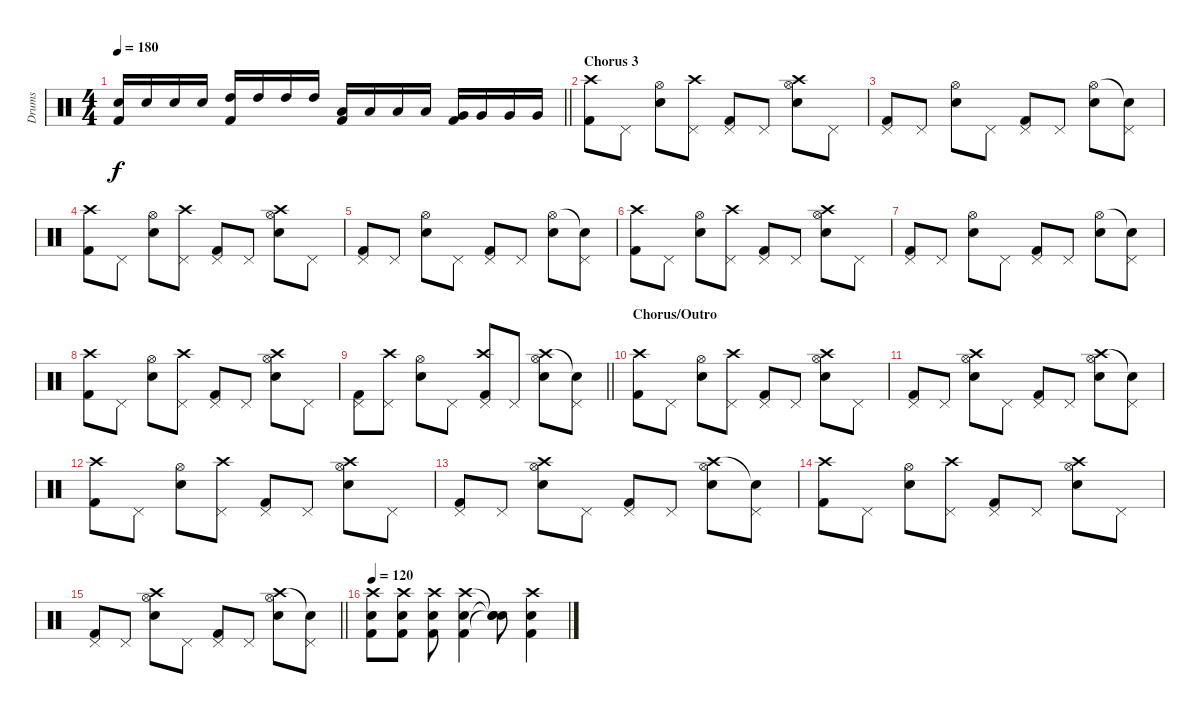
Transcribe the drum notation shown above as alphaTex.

\track ("Drums" "Drums") {instrument percussion}
\staff {score}
\articulation defaults
\ts (4 4)
\tempo 180
\clef neutral
\barLineRight lightlight
\ks c
("Snare (hit) 2" "Kick (hit) 2").16{dy f} "Snare (hit) 2".16 "Snare (hit) 2".16 "Snare (hit) 2".16 ("High Tom (hit)" "Kick (hit) 2").16 "High Tom (hit)".16 "High Tom (hit)".16 "High Tom (hit)".16 ("Low Tom (hit)" "Kick (hit) 2").16 "Low Tom (hit)".16 "Low Tom (hit)".16 "Low Tom (hit)".16 ("Very Low Tom (hit)" "Kick (hit) 2").16 "Very Low Tom (hit)".16 "Very Low Tom (hit)".16 "Very Low Tom (hit)".16 |
\section ("" "Chorus 3")
("Crash high (hit)" "Kick (hit) 2").8 "Pedal Hi-Hat (hit)".8 ("Hi-Hat (open)" "Snare (hit) 2").8 ("Crash high (hit)" "Pedal Hi-Hat (hit)").8 ("Pedal Hi-Hat (hit)" "Kick (hit) 2").8 "Pedal Hi-Hat (hit)".8 ("Crash high (hit)" "Hi-Hat (open)" "Snare (hit) 2").8 "Pedal Hi-Hat (hit)".8 |
("Pedal Hi-Hat (hit)" "Kick (hit) 2").8 "Pedal Hi-Hat (hit)".8 ("Hi-Hat (open)" "Snare (hit) 2").8 "Pedal Hi-Hat (hit)".8 ("Pedal Hi-Hat (hit)" "Kick (hit) 2").8 "Pedal Hi-Hat (hit)".8 ("Hi-Hat (open)" "Snare (hit) 2").8 ("Snare (hit)"{t} "Pedal Hi-Hat (hit)").8 |
("Crash high (hit)" "Kick (hit) 2").8 "Pedal Hi-Hat (hit)".8 ("Hi-Hat (open)" "Snare (hit) 2").8 ("Crash high (hit)" "Pedal Hi-Hat (hit)").8 ("Pedal Hi-Hat (hit)" "Kick (hit) 2").8 "Pedal Hi-Hat (hit)".8 ("Crash high (hit)" "Hi-Hat (open)" "Snare (hit) 2").8 "Pedal Hi-Hat (hit)".8 |
("Pedal Hi-Hat (hit)" "Kick (hit) 2").8 "Pedal Hi-Hat (hit)".8 ("Hi-Hat (open)" "Snare (hit) 2").8 "Pedal Hi-Hat (hit)".8 ("Pedal Hi-Hat (hit)" "Kick (hit) 2").8 "Pedal Hi-Hat (hit)".8 ("Hi-Hat (open)" "Snare (hit) 2").8 ("Snare (hit)"{t} "Pedal Hi-Hat (hit)").8 |
("Crash high (hit)" "Kick (hit) 2").8 "Pedal Hi-Hat (hit)".8 ("Hi-Hat (open)" "Snare (hit) 2").8 ("Crash high (hit)" "Pedal Hi-Hat (hit)").8 ("Pedal Hi-Hat (hit)" "Kick (hit) 2").8 "Pedal Hi-Hat (hit)".8 ("Crash high (hit)" "Hi-Hat (open)" "Snare (hit) 2").8 "Pedal Hi-Hat (hit)".8 |
("Pedal Hi-Hat (hit)" "Kick (hit) 2").8 "Pedal Hi-Hat (hit)".8 ("Hi-Hat (open)" "Snare (hit) 2").8 "Pedal Hi-Hat (hit)".8 ("Pedal Hi-Hat (hit)" "Kick (hit) 2").8 "Pedal Hi-Hat (hit)".8 ("Hi-Hat (open)" "Snare (hit) 2").8 ("Snare (hit)"{t} "Pedal Hi-Hat (hit)").8 |
("Crash high (hit)" "Kick (hit) 2").8 "Pedal Hi-Hat (hit)".8 ("Hi-Hat (open)" "Snare (hit) 2").8 ("Crash high (hit)" "Pedal Hi-Hat (hit)").8 ("Pedal Hi-Hat (hit)" "Kick (hit) 2").8 "Pedal Hi-Hat (hit)".8 ("Crash high (hit)" "Hi-Hat (open)" "Snare (hit) 2").8 "Pedal Hi-Hat (hit)".8 |
\barLineRight lightlight
("Pedal Hi-Hat (hit)" "Kick (hit) 2").8 ("Crash high (hit)" "Pedal Hi-Hat (hit)").8 ("Hi-Hat (open)" "Snare (hit) 2").8 "Pedal Hi-Hat (hit)".8 ("Crash high (hit)" "Pedal Hi-Hat (hit)" "Kick (hit) 2").8 "Pedal Hi-Hat (hit)".8 ("Crash high (hit)" "Hi-Hat (open)" "Snare (hit) 2").8 ("Snare (hit)"{t} "Pedal Hi-Hat (hit)").8 |
\section ("" "Chorus/Outro")
("Crash high (hit)" "Kick (hit) 2").8 "Pedal Hi-Hat (hit)".8 ("Hi-Hat (open)" "Snare (hit) 2").8 ("Crash high (hit)" "Pedal Hi-Hat (hit)").8 ("Pedal Hi-Hat (hit)" "Kick (hit) 2").8 "Pedal Hi-Hat (hit)".8 ("Crash high (hit)" "Hi-Hat (open)" "Snare (hit) 2").8 "Pedal Hi-Hat (hit)".8 |
("Pedal Hi-Hat (hit)" "Kick (hit) 2").8 "Pedal Hi-Hat (hit)".8 ("Crash high (hit)" "Hi-Hat (open)" "Snare (hit) 2").8 "Pedal Hi-Hat (hit)".8 ("Pedal Hi-Hat (hit)" "Kick (hit) 2").8 "Pedal Hi-Hat (hit)".8 ("Crash high (hit)" "Hi-Hat (open)" "Snare (hit) 2").8 ("Snare (hit)"{t} "Pedal Hi-Hat (hit)").8 |
("Crash high (hit)" "Kick (hit) 2").8 "Pedal Hi-Hat (hit)".8 ("Hi-Hat (open)" "Snare (hit) 2").8 ("Crash high (hit)" "Pedal Hi-Hat (hit)").8 ("Pedal Hi-Hat (hit)" "Kick (hit) 2").8 "Pedal Hi-Hat (hit)".8 ("Crash high (hit)" "Hi-Hat (open)" "Snare (hit) 2").8 "Pedal Hi-Hat (hit)".8 |
("Pedal Hi-Hat (hit)" "Kick (hit) 2").8 "Pedal Hi-Hat (hit)".8 ("Crash high (hit)" "Hi-Hat (open)" "Snare (hit) 2").8 "Pedal Hi-Hat (hit)".8 ("Pedal Hi-Hat (hit)" "Kick (hit) 2").8 "Pedal Hi-Hat (hit)".8 ("Crash high (hit)" "Hi-Hat (open)" "Snare (hit) 2").8 ("Snare (hit)"{t} "Pedal Hi-Hat (hit)").8 |
("Crash high (hit)" "Kick (hit) 2").8 "Pedal Hi-Hat (hit)".8 ("Hi-Hat (open)" "Snare (hit) 2").8 ("Crash high (hit)" "Pedal Hi-Hat (hit)").8 ("Pedal Hi-Hat (hit)" "Kick (hit) 2").8 "Pedal Hi-Hat (hit)".8 ("Crash high (hit)" "Hi-Hat (open)" "Snare (hit) 2").8 "Pedal Hi-Hat (hit)".8 |
\barLineRight lightlight
("Pedal Hi-Hat (hit)" "Kick (hit) 2").8 "Pedal Hi-Hat (hit)".8 ("Crash high (hit)" "Hi-Hat (open)" "Snare (hit) 2").8 "Pedal Hi-Hat (hit)".8 ("Pedal Hi-Hat (hit)" "Kick (hit) 2").8 "Pedal Hi-Hat (hit)".8 ("Crash high (hit)" "Hi-Hat (open)" "Snare (hit) 2").8 ("Snare (hit)"{t} "Pedal Hi-Hat (hit)").8 |
\tempo 120
("Crash high (hit)" "Snare (hit) 2" "Kick (hit) 2").8 ("Crash high (hit)" "Snare (hit) 2" "Kick (hit) 2").8 ("Crash high (hit)" "Snare (hit) 2" "Kick (hit) 2").8 ("Crash high (hit)" "Snare (hit) 2" "Kick (hit) 2").4 ("Snare (hit)"{t} "Snare (hit)"{t} "Snare (hit)"{t}).8 ("Crash high (hit)" "Snare (hit) 2" "Kick (hit) 2").4
